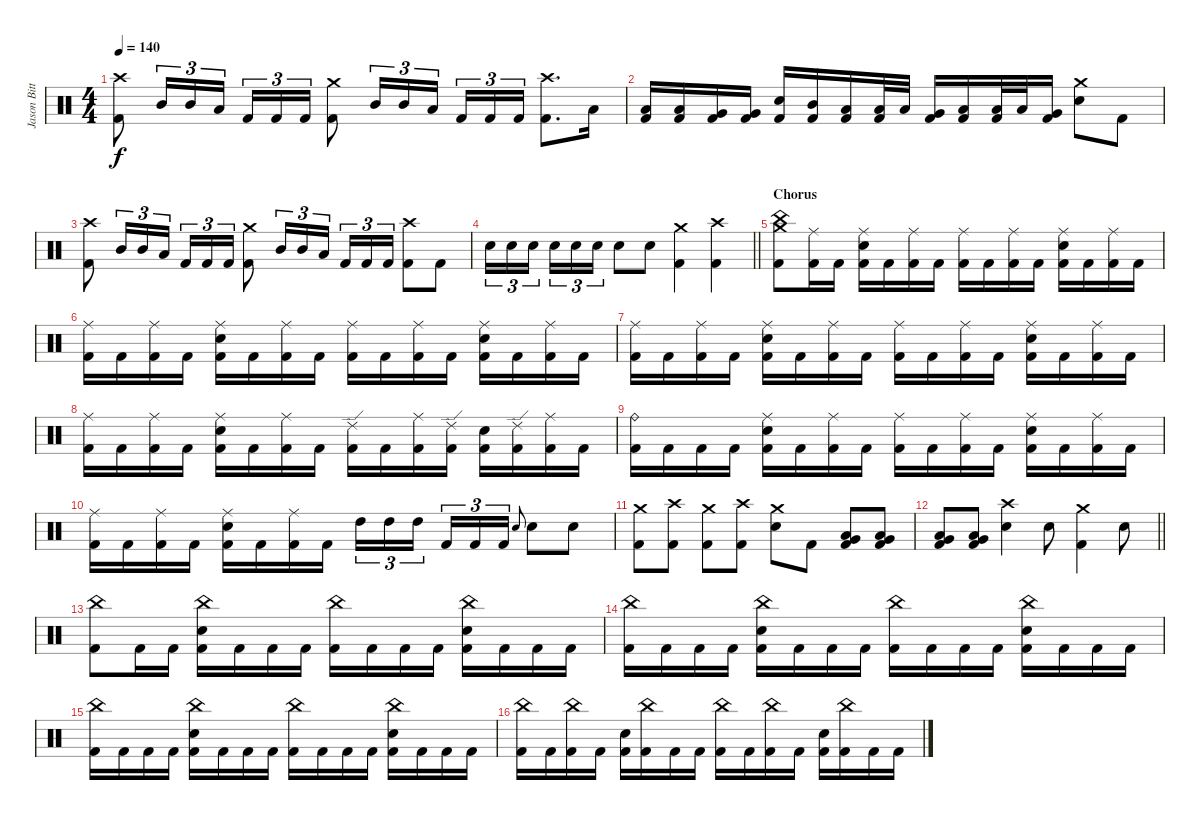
\track ("Jason Bittner" "Jason Bitt") {instrument percussion}
\staff {score}
\articulation defaults
\ts (4 4)
\tempo 140
\clef neutral
\ks c
("Crash high (hit)" "Kick (hit) 2").8{dy f} "Mid Tom (hit)".16{tu (3 2)} "Mid Tom (hit)".16{tu (3 2)} "Low Tom (hit)".16{tu (3 2)} "Kick (hit) 2".16{tu (3 2)} "Kick (hit) 2".16{tu (3 2)} "Kick (hit) 2".16{tu (3 2)} ("Crash medium (hit)" "Kick (hit) 2").8 "Mid Tom (hit)".16{tu (3 2)} "Mid Tom (hit)".16{tu (3 2)} "Low Tom (hit)".16{tu (3 2) beam splitsecondary} "Kick (hit) 2".16{tu (3 2)} "Kick (hit) 2".16{tu (3 2)} "Kick (hit) 2".16{tu (3 2)} ("Crash high (hit)" "Kick (hit) 2").8{d} "Low Tom (hit)".16 |
("Low Tom (hit)" "Kick (hit) 2").16 ("Low Tom (hit)" "Kick (hit) 2").16 ("Very Low Tom (hit)" "Kick (hit) 2").16 ("Very Low Tom (hit)" "Kick (hit) 2").16 ("Electric Snare (hit)" "Kick (hit) 2").16 ("Mid Tom (hit)" "Kick (hit) 2").16 ("Low Tom (hit)" "Kick (hit) 2").16 ("Low Tom (hit)" "Kick (hit) 2").32 "Low Tom (hit)".32 ("Very Low Tom (hit)" "Kick (hit) 2").16 ("Low Tom (hit)" "Kick (hit) 2").16 ("Low Tom (hit)" "Kick (hit) 2").32 "Low Tom (hit)".32 ("Very Low Tom (hit)" "Kick (hit) 2").16 ("Crash medium (hit)" "Electric Snare (hit)").8 "Kick (hit) 2".8 |
("Crash high (hit)" "Kick (hit) 2").8 "Mid Tom (hit)".16{tu (3 2)} "Mid Tom (hit)".16{tu (3 2)} "Low Tom (hit)".16{tu (3 2)} "Kick (hit) 2".16{tu (3 2)} "Kick (hit) 2".16{tu (3 2)} "Kick (hit) 2".16{tu (3 2)} ("Crash medium (hit)" "Kick (hit) 2").8 "Mid Tom (hit)".16{tu (3 2)} "Mid Tom (hit)".16{tu (3 2)} "Low Tom (hit)".16{tu (3 2) beam splitsecondary} "Kick (hit) 2".16{tu (3 2)} "Kick (hit) 2".16{tu (3 2)} "Kick (hit) 2".16{tu (3 2)} ("Crash high (hit)" "Kick (hit) 2").8 "Kick (hit) 2".8 |
\barLineRight lightlight "Electric Snare (hit)".16{tu (3 2)} "Electric Snare (hit)".16{tu (3 2)} "Electric Snare (hit)".16{tu (3 2) beam splitsecondary} "Electric Snare (hit)".16{tu (3 2)} "Electric Snare (hit)".16{tu (3 2)} "Electric Snare (hit)".16{tu (3 2)} "Electric Snare (hit)".8 "Electric Snare (hit)".8
("Crash medium (hit)" "Kick (hit) 2").4 ("Crash high (hit)" "Kick (hit) 2").4 |
\section ("" "Chorus")
("China (hit)" "Crash medium (hit)" "Kick (hit) 2").8 ("Ride (middle)" "Kick (hit) 2").16 "Kick (hit) 2".16 ("Ride (middle)" "Electric Snare (hit)" "Kick (hit) 2").16 "Kick (hit) 2".16 ("Ride (middle)" "Kick (hit) 2").16 "Kick (hit) 2".16 ("Ride (middle)" "Kick (hit) 2").16 "Kick (hit) 2".16 ("Ride (middle)" "Kick (hit) 2").16 "Kick (hit) 2".16 ("Ride (middle)" "Electric Snare (hit)" "Kick (hit) 2").16 "Kick (hit) 2".16 ("Ride (middle)" "Kick (hit) 2").16 "Kick (hit) 2".16 |
("Ride (middle)" "Kick (hit) 2").16 "Kick (hit) 2".16 ("Ride (middle)" "Kick (hit) 2").16 "Kick (hit) 2".16 ("Ride (middle)" "Electric Snare (hit)" "Kick (hit) 2").16 "Kick (hit) 2".16 ("Ride (middle)" "Kick (hit) 2").16 "Kick (hit) 2".16 ("Ride (middle)" "Kick (hit) 2").16 "Kick (hit) 2".16 ("Ride (middle)" "Kick (hit) 2").16 "Kick (hit) 2".16 ("Ride (middle)" "Electric Snare (hit)" "Kick (hit) 2").16 "Kick (hit) 2".16 ("Ride (middle)" "Kick (hit) 2").16 "Kick (hit) 2".16 |
("Ride (middle)" "Kick (hit) 2").16 "Kick (hit) 2".16 ("Ride (middle)" "Kick (hit) 2").16 "Kick (hit) 2".16 ("Ride (middle)" "Electric Snare (hit)" "Kick (hit) 2").16 "Kick (hit) 2".16 ("Ride (middle)" "Kick (hit) 2").16 "Kick (hit) 2".16 ("Ride (middle)" "Kick (hit) 2").16 "Kick (hit) 2".16 ("Ride (middle)" "Kick (hit) 2").16 "Kick (hit) 2".16 ("Ride (middle)" "Electric Snare (hit)" "Kick (hit) 2").16 "Kick (hit) 2".16 ("Ride (middle)" "Kick (hit) 2").16 "Kick (hit) 2".16 |
("Ride (middle)" "Kick (hit) 2").16 "Kick (hit) 2".16 ("Ride (middle)" "Kick (hit) 2").16 "Kick (hit) 2".16 ("Ride (middle)" "Electric Snare (hit)" "Kick (hit) 2").16 "Kick (hit) 2".16 ("Ride (middle)" "Kick (hit) 2").16 "Kick (hit) 2".16 ("Ride (edge) 2" "Kick (hit) 2").16 "Kick (hit) 2".16 ("Ride (middle)" "Kick (hit) 2").16 ("Ride (edge) 2" "Kick (hit) 2").16 ("Electric Snare (hit)" "Kick (hit) 2").16 ("Ride (edge) 2" "Kick (hit) 2").16 ("Ride (middle)" "Kick (hit) 2").16 "Kick (hit) 2".16 |
("Ride (bell)" "Kick (hit) 2").16 "Kick (hit) 2".16 "Kick (hit) 2".16 "Kick (hit) 2".16 ("Ride (middle)" "Electric Snare (hit)" "Kick (hit) 2").16 "Kick (hit) 2".16 ("Ride (middle)" "Kick (hit) 2").16 "Kick (hit) 2".16 ("Ride (middle)" "Kick (hit) 2").16 "Kick (hit) 2".16 ("Ride (middle)" "Kick (hit) 2").16 "Kick (hit) 2".16 ("Ride (middle)" "Electric Snare (hit)" "Kick (hit) 2").16 "Kick (hit) 2".16 ("Ride (middle)" "Kick (hit) 2").16 "Kick (hit) 2".16 |
("Ride (middle)" "Kick (hit) 2").16 "Kick (hit) 2".16 ("Ride (middle)" "Kick (hit) 2").16 "Kick (hit) 2".16 ("Ride (middle)" "Electric Snare (hit)" "Kick (hit) 2").16 "Kick (hit) 2".16 ("Ride (middle)" "Kick (hit) 2").16 "Kick (hit) 2".16 "High Tom (hit)".16{tu (3 2)} "High Tom (hit)".16{tu (3 2)} "High Tom (hit)".16{tu (3 2) beam splitsecondary} "Kick (hit) 2".16{tu (3 2)} "Kick (hit) 2".16{tu (3 2)} "Kick (hit) 2".16{tu (3 2)} "Electric Snare (hit)".8{gr onbeat} "Electric Snare (hit)".8 "Electric Snare (hit)".8 |
("Crash medium (hit)" "Kick (hit) 2").8 ("Crash high (hit)" "Kick (hit) 2").8 ("Crash medium (hit)" "Kick (hit) 2").8 ("Crash high (hit)" "Kick (hit) 2").8 ("Crash medium (hit)" "Electric Snare (hit)").8 "Kick (hit) 2".8 ("Low Tom (hit)" "Very Low Tom (hit)" "Kick (hit) 2").8 ("Low Tom (hit)" "Very Low Tom (hit)" "Kick (hit) 2").8 |
\barLineRight lightlight
("Low Tom (hit)" "Very Low Tom (hit)" "Kick (hit) 2").8 ("Low Tom (hit)" "Very Low Tom (hit)" "Kick (hit) 2").8 ("Crash high (hit)" "Electric Snare (hit)").4 "Electric Snare (hit)".8 ("Crash medium (hit)" "Kick (hit) 2").4 "Electric Snare (hit)".8 |
("China (hit)" "Kick (hit) 2").8 "Kick (hit) 2".16 "Kick (hit) 2".16 ("China (hit)" "Electric Snare (hit)" "Kick (hit) 2").16 "Kick (hit) 2".16 "Kick (hit) 2".16 "Kick (hit) 2".16 ("China (hit)" "Kick (hit) 2").16 "Kick (hit) 2".16 "Kick (hit) 2".16 "Kick (hit) 2".16 ("China (hit)" "Electric Snare (hit)" "Kick (hit) 2").16 "Kick (hit) 2".16 "Kick (hit) 2".16 "Kick (hit) 2".16 |
("China (hit)" "Kick (hit) 2").16 "Kick (hit) 2".16 "Kick (hit) 2".16 "Kick (hit) 2".16 ("China (hit)" "Electric Snare (hit)" "Kick (hit) 2").16 "Kick (hit) 2".16 "Kick (hit) 2".16 "Kick (hit) 2".16 ("China (hit)" "Kick (hit) 2").16 "Kick (hit) 2".16 "Kick (hit) 2".16 "Kick (hit) 2".16 ("China (hit)" "Electric Snare (hit)" "Kick (hit) 2").16 "Kick (hit) 2".16 "Kick (hit) 2".16 "Kick (hit) 2".16 |
("China (hit)" "Kick (hit) 2").16 "Kick (hit) 2".16 "Kick (hit) 2".16 "Kick (hit) 2".16 ("China (hit)" "Electric Snare (hit)" "Kick (hit) 2").16 "Kick (hit) 2".16 "Kick (hit) 2".16 "Kick (hit) 2".16 ("China (hit)" "Kick (hit) 2").16 "Kick (hit) 2".16 "Kick (hit) 2".16 "Kick (hit) 2".16 ("China (hit)" "Electric Snare (hit)" "Kick (hit) 2").16 "Kick (hit) 2".16 "Kick (hit) 2".16 "Kick (hit) 2".16 |
("China (hit)" "Kick (hit) 2").16 "Kick (hit) 2".16 ("China (hit)" "Kick (hit) 2").16 "Kick (hit) 2".16 ("Electric Snare (hit)" "Kick (hit) 2").16 ("China (hit)" "Kick (hit) 2").16 "Kick (hit) 2".16 "Kick (hit) 2".16 ("China (hit)" "Kick (hit) 2").16 "Kick (hit) 2".16 ("China (hit)" "Kick (hit) 2").16 "Kick (hit) 2".16 ("Electric Snare (hit)" "Kick (hit) 2").16 ("China (hit)" "Kick (hit) 2").16 "Kick (hit) 2".16 "Kick (hit) 2".16
